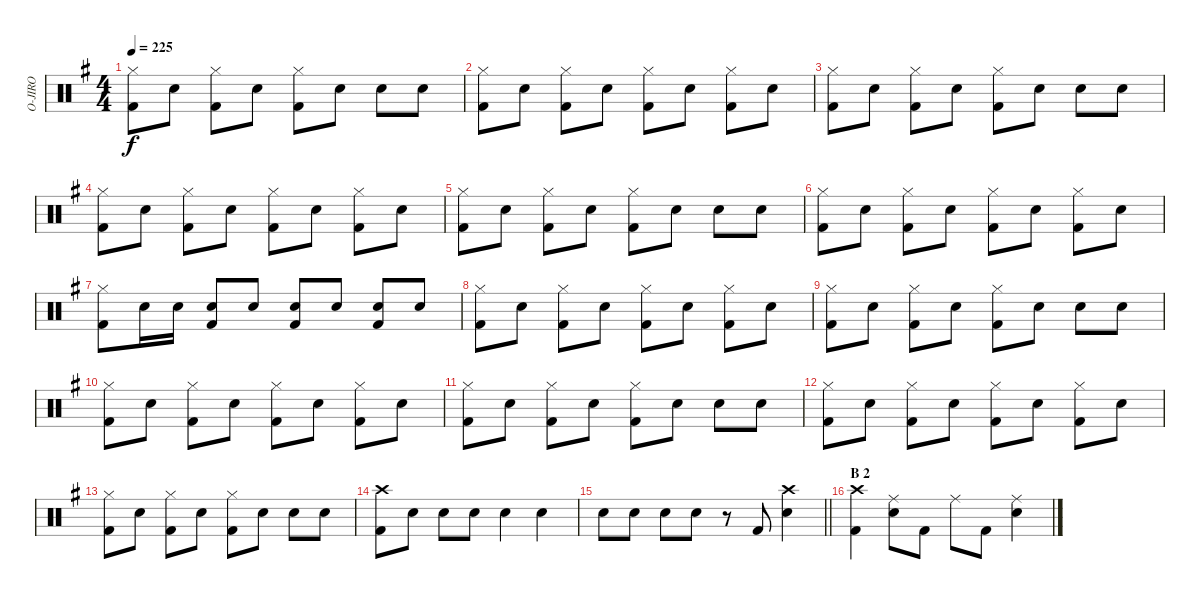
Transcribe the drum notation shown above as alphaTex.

\track ("O-JIRO" "O-JIRO") {instrument percussion}
\staff {score}
\articulation defaults
\ts (4 4)
\tempo 225
\clef neutral
\ks g
("Hi-Hat (closed)" "Kick (hit) 2").8{dy f} "Snare (hit) 2".8 ("Hi-Hat (closed)" "Kick (hit) 2").8 "Snare (hit) 2".8 ("Hi-Hat (closed)" "Kick (hit) 2").8 "Snare (hit) 2".8 "Snare (hit) 2".8 "Snare (hit) 2".8 |
("Hi-Hat (closed)" "Kick (hit) 2").8 "Snare (hit) 2".8 ("Hi-Hat (closed)" "Kick (hit) 2").8 "Snare (hit) 2".8 ("Hi-Hat (closed)" "Kick (hit) 2").8 "Snare (hit) 2".8 ("Hi-Hat (closed)" "Kick (hit) 2").8 "Snare (hit) 2".8 |
("Hi-Hat (closed)" "Kick (hit) 2").8 "Snare (hit) 2".8 ("Hi-Hat (closed)" "Kick (hit) 2").8 "Snare (hit) 2".8 ("Hi-Hat (closed)" "Kick (hit) 2").8 "Snare (hit) 2".8 "Snare (hit) 2".8 "Snare (hit) 2".8 |
("Hi-Hat (closed)" "Kick (hit) 2").8 "Snare (hit) 2".8 ("Hi-Hat (closed)" "Kick (hit) 2").8 "Snare (hit) 2".8 ("Hi-Hat (closed)" "Kick (hit) 2").8 "Snare (hit) 2".8 ("Hi-Hat (closed)" "Kick (hit) 2").8 "Snare (hit) 2".8 |
("Hi-Hat (closed)" "Kick (hit) 2").8 "Snare (hit) 2".8 ("Hi-Hat (closed)" "Kick (hit) 2").8 "Snare (hit) 2".8 ("Hi-Hat (closed)" "Kick (hit) 2").8 "Snare (hit) 2".8 "Snare (hit) 2".8 "Snare (hit) 2".8 |
("Hi-Hat (closed)" "Kick (hit) 2").8 "Snare (hit) 2".8 ("Hi-Hat (closed)" "Kick (hit) 2").8 "Snare (hit) 2".8 ("Hi-Hat (closed)" "Kick (hit) 2").8 "Snare (hit) 2".8 ("Hi-Hat (closed)" "Kick (hit) 2").8 "Snare (hit) 2".8 |
("Hi-Hat (closed)" "Kick (hit) 2").8 "Snare (hit) 2".16 "Snare (hit) 2".16 ("Snare (hit) 2" "Kick (hit) 2").8 "Snare (hit) 2".8 ("Snare (hit) 2" "Kick (hit) 2").8 "Snare (hit) 2".8 ("Kick (hit) 2" "Snare (hit) 2").8 "Snare (hit) 2".8 |
("Hi-Hat (closed)" "Kick (hit) 2").8 "Snare (hit) 2".8 ("Hi-Hat (closed)" "Kick (hit) 2").8 "Snare (hit) 2".8 ("Hi-Hat (closed)" "Kick (hit) 2").8 "Snare (hit) 2".8 ("Hi-Hat (closed)" "Kick (hit) 2").8 "Snare (hit) 2".8 |
("Hi-Hat (closed)" "Kick (hit) 2").8 "Snare (hit) 2".8 ("Hi-Hat (closed)" "Kick (hit) 2").8 "Snare (hit) 2".8 ("Hi-Hat (closed)" "Kick (hit) 2").8 "Snare (hit) 2".8 "Snare (hit) 2".8 "Snare (hit) 2".8 |
("Hi-Hat (closed)" "Kick (hit) 2").8 "Snare (hit) 2".8 ("Hi-Hat (closed)" "Kick (hit) 2").8 "Snare (hit) 2".8 ("Hi-Hat (closed)" "Kick (hit) 2").8 "Snare (hit) 2".8 ("Hi-Hat (closed)" "Kick (hit) 2").8 "Snare (hit) 2".8 |
("Hi-Hat (closed)" "Kick (hit) 2").8 "Snare (hit) 2".8 ("Hi-Hat (closed)" "Kick (hit) 2").8 "Snare (hit) 2".8 ("Hi-Hat (closed)" "Kick (hit) 2").8 "Snare (hit) 2".8 "Snare (hit) 2".8 "Snare (hit) 2".8 |
("Hi-Hat (closed)" "Kick (hit) 2").8 "Snare (hit) 2".8 ("Hi-Hat (closed)" "Kick (hit) 2").8 "Snare (hit) 2".8 ("Hi-Hat (closed)" "Kick (hit) 2").8 "Snare (hit) 2".8 ("Hi-Hat (closed)" "Kick (hit) 2").8 "Snare (hit) 2".8 |
("Hi-Hat (closed)" "Kick (hit) 2").8 "Snare (hit) 2".8 ("Hi-Hat (closed)" "Kick (hit) 2").8 "Snare (hit) 2".8 ("Hi-Hat (closed)" "Kick (hit) 2").8 "Snare (hit) 2".8 "Snare (hit) 2".8 "Snare (hit) 2".8 |
("Crash high (hit)" "Kick (hit) 2").8 "Snare (hit) 2".8 "Snare (hit) 2".8 "Snare (hit) 2".8 "Snare (hit) 2".4 "Snare (hit) 2".4 |
\barLineRight lightlight "Snare (hit) 2".8 "Snare (hit) 2".8 "Snare (hit) 2".8 "Snare (hit) 2".8
r.8 "Kick (hit) 2".8 ("Crash high (hit)" "Snare (hit) 2").4 |
\section ("" "B 2")
("Crash high (hit)" "Kick (hit) 2").4 ("Ride (middle)" "Snare (hit) 2").8 "Kick (hit) 2".8 "Ride (middle)".8 "Kick (hit) 2".8 ("Ride (middle)" "Snare (hit) 2").4
